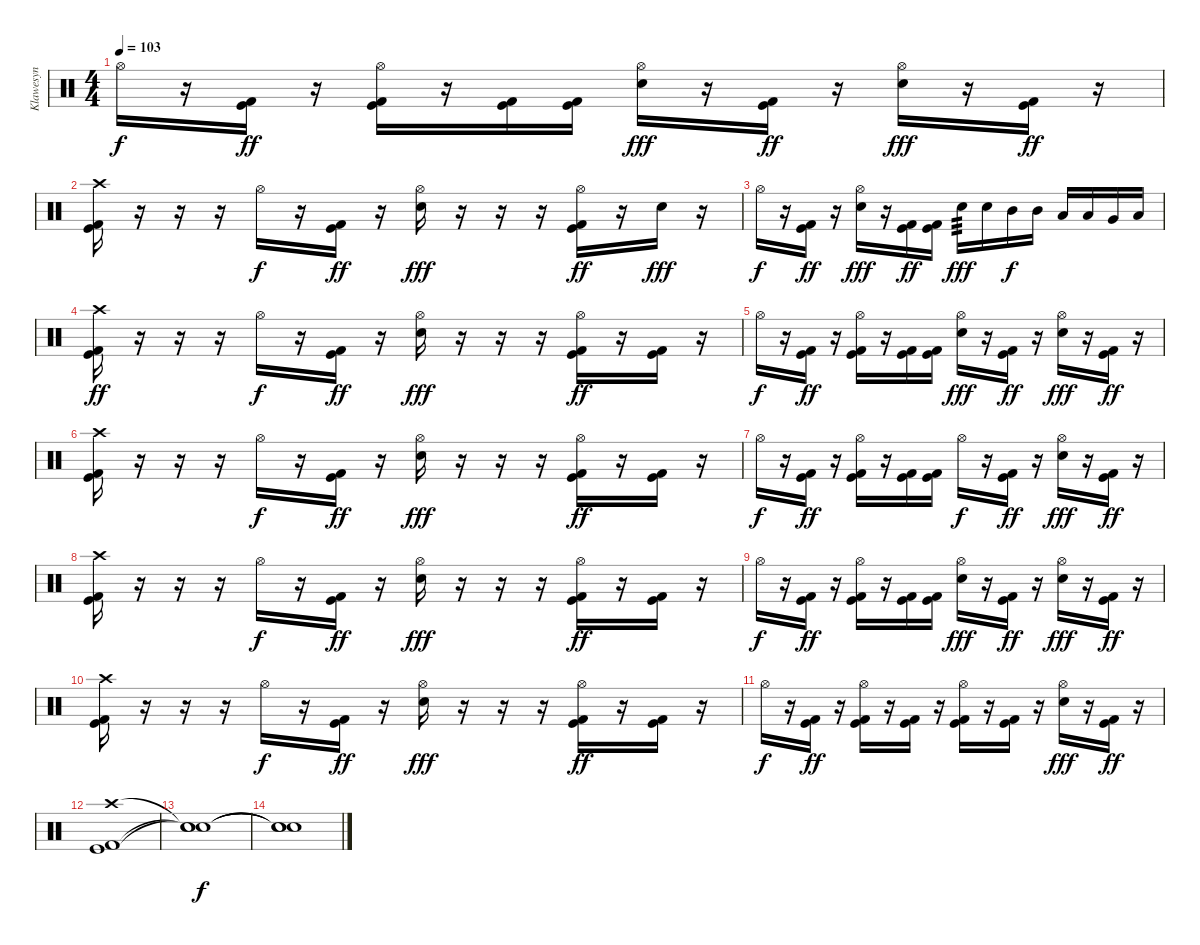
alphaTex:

\track ("Klawesyn" "Klawesyn") {instrument percussion}
\staff {score}
\articulation defaults
\ts (4 4)
\tempo 103
\clef neutral
\ks c "Hi-Hat (open)".16{dy f}
r.16 ("Kick (hit)" "Kick (hit) 2").16{dy ff} r.16 ("Hi-Hat (open)" "Kick (hit)" "Kick (hit) 2").16 r.16 ("Kick (hit)" "Kick (hit) 2").16 ("Kick (hit)" "Kick (hit) 2").16 ("Hi-Hat (open)" "Electric Snare (hit)").16{dy fff} r.16 ("Kick (hit)" "Kick (hit) 2").16{dy ff} r.16 ("Hi-Hat (open)" "Electric Snare (hit)").16{dy fff} r.16 ("Kick (hit)" "Kick (hit) 2").16{dy ff} r.16 |
("Crash high (hit)" "Kick (hit)" "Kick (hit) 2").16 r.16 r.16 r.16 "Hi-Hat (open)".16{dy f} r.16 ("Kick (hit)" "Kick (hit) 2").16{dy ff} r.16 ("Hi-Hat (open)" "Electric Snare (hit)").16{dy fff} r.16 r.16 r.16 ("Hi-Hat (open)" "Kick (hit)" "Kick (hit) 2").16{dy ff} r.16 "Electric Snare (hit)".16{dy fff} r.16 |
"Hi-Hat (open)".16{dy f} r.16 ("Kick (hit)" "Kick (hit) 2").16{dy ff} r.16 ("Hi-Hat (open)" "Electric Snare (hit)").16{dy fff} r.16 ("Kick (hit)" "Kick (hit) 2").16{dy ff} ("Kick (hit)" "Kick (hit) 2").16 "Electric Snare (hit)".16{tp 3 dy fff} "Electric Snare (hit)".16 "Mid Tom (hit)".16{dy f} "Mid Tom (hit)".16 "Low Tom (hit)".16 "Low Tom (hit)".16 "Very Low Tom (hit)".16 "Low Floor Tom (hit)".16 |
("Crash high (hit)" "Kick (hit)" "Kick (hit) 2").16{dy ff} r.16 r.16 r.16 "Hi-Hat (open)".16{dy f} r.16 ("Kick (hit)" "Kick (hit) 2").16{dy ff} r.16 ("Hi-Hat (open)" "Electric Snare (hit)").16{dy fff} r.16 r.16 r.16 ("Hi-Hat (open)" "Kick (hit)" "Kick (hit) 2").16{dy ff} r.16 ("Kick (hit)" "Kick (hit) 2").16 r.16 |
"Hi-Hat (open)".16{dy f} r.16 ("Kick (hit)" "Kick (hit) 2").16{dy ff} r.16 ("Hi-Hat (open)" "Kick (hit)" "Kick (hit) 2").16 r.16 ("Kick (hit)" "Kick (hit) 2").16 ("Kick (hit)" "Kick (hit) 2").16 ("Hi-Hat (open)" "Electric Snare (hit)").16{dy fff} r.16 ("Kick (hit)" "Kick (hit) 2").16{dy ff} r.16 ("Hi-Hat (open)" "Electric Snare (hit)").16{dy fff} r.16 ("Kick (hit)" "Kick (hit) 2").16{dy ff} r.16 |
("Crash high (hit)" "Kick (hit)" "Kick (hit) 2").16 r.16 r.16 r.16 "Hi-Hat (open)".16{dy f} r.16 ("Kick (hit)" "Kick (hit) 2").16{dy ff} r.16 ("Hi-Hat (open)" "Electric Snare (hit)").16{dy fff} r.16 r.16 r.16 ("Hi-Hat (open)" "Kick (hit)" "Kick (hit) 2").16{dy ff} r.16 ("Kick (hit)" "Kick (hit) 2").16 r.16 |
"Hi-Hat (open)".16{dy f} r.16 ("Kick (hit)" "Kick (hit) 2").16{dy ff} r.16 ("Hi-Hat (open)" "Kick (hit)" "Kick (hit) 2").16 r.16 ("Kick (hit)" "Kick (hit) 2").16 ("Kick (hit)" "Kick (hit) 2").16 "Hi-Hat (open)".16{dy f} r.16 ("Kick (hit)" "Kick (hit) 2").16{dy ff} r.16 ("Hi-Hat (open)" "Electric Snare (hit)").16{dy fff} r.16 ("Kick (hit)" "Kick (hit) 2").16{dy ff} r.16 |
("Crash high (hit)" "Kick (hit)" "Kick (hit) 2").16 r.16 r.16 r.16 "Hi-Hat (open)".16{dy f} r.16 ("Kick (hit)" "Kick (hit) 2").16{dy ff} r.16 ("Hi-Hat (open)" "Electric Snare (hit)").16{dy fff} r.16 r.16 r.16 ("Hi-Hat (open)" "Kick (hit)" "Kick (hit) 2").16{dy ff} r.16 ("Kick (hit)" "Kick (hit) 2").16 r.16 |
"Hi-Hat (open)".16{dy f} r.16 ("Kick (hit)" "Kick (hit) 2").16{dy ff} r.16 ("Hi-Hat (open)" "Kick (hit)" "Kick (hit) 2").16 r.16 ("Kick (hit)" "Kick (hit) 2").16 ("Kick (hit)" "Kick (hit) 2").16 ("Hi-Hat (open)" "Electric Snare (hit)").16{dy fff} r.16 ("Kick (hit)" "Kick (hit) 2").16{dy ff} r.16 ("Hi-Hat (open)" "Electric Snare (hit)").16{dy fff} r.16 ("Kick (hit)" "Kick (hit) 2").16{dy ff} r.16 |
("Crash high (hit)" "Kick (hit)" "Kick (hit) 2").16 r.16 r.16 r.16 "Hi-Hat (open)".16{dy f} r.16 ("Kick (hit)" "Kick (hit) 2").16{dy ff} r.16 ("Hi-Hat (open)" "Electric Snare (hit)").16{dy fff} r.16 r.16 r.16 ("Hi-Hat (open)" "Kick (hit)" "Kick (hit) 2").16{dy ff} r.16 ("Kick (hit)" "Kick (hit) 2").16 r.16 |
"Hi-Hat (open)".16{dy f} r.16 ("Kick (hit)" "Kick (hit) 2").16{dy ff} r.16 ("Hi-Hat (open)" "Kick (hit)" "Kick (hit) 2").16 r.16 ("Kick (hit)" "Kick (hit) 2").16 r.16 ("Hi-Hat (open)" "Kick (hit)" "Kick (hit) 2").16 r.16 ("Kick (hit)" "Kick (hit) 2").16 r.16 ("Hi-Hat (open)" "Electric Snare (hit)").16{dy fff} r.16 ("Kick (hit)" "Kick (hit) 2").16{dy ff} r.16 |
("Crash high (hit)" "Kick (hit)" "Kick (hit) 2").1 |
("Snare (hit)"{t} "Snare (hit)"{t} "Snare (hit)"{t}).1{dy f} |
("Snare (hit)"{t} "Snare (hit)"{t} "Snare (hit)"{t}).1
